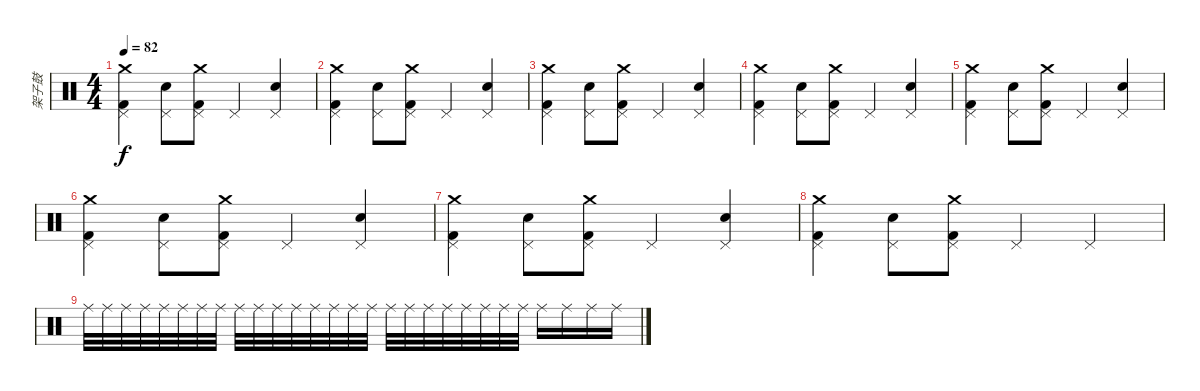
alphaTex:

\track ("架子鼓" "架子鼓") {instrument percussion}
\staff {score}
\articulation defaults
\ts (4 4)
\tempo 82
\clef neutral
\ks c
("Crash medium (hit)" "Pedal Hi-Hat (hit)" "Kick (hit) 2").4{dy f} ("Pedal Hi-Hat (hit)" "Snare (hit) 2").8 ("Crash medium (hit)" "Pedal Hi-Hat (hit)" "Kick (hit) 2").8 "Pedal Hi-Hat (hit)".4 ("Pedal Hi-Hat (hit)" "Snare (hit) 2").4 |
("Crash medium (hit)" "Pedal Hi-Hat (hit)" "Kick (hit) 2").4 ("Pedal Hi-Hat (hit)" "Snare (hit) 2").8 ("Crash medium (hit)" "Pedal Hi-Hat (hit)" "Kick (hit) 2").8 "Pedal Hi-Hat (hit)".4 ("Pedal Hi-Hat (hit)" "Snare (hit) 2").4 |
("Crash medium (hit)" "Pedal Hi-Hat (hit)" "Kick (hit) 2").4 ("Pedal Hi-Hat (hit)" "Snare (hit) 2").8 ("Crash medium (hit)" "Pedal Hi-Hat (hit)" "Kick (hit) 2").8 "Pedal Hi-Hat (hit)".4 ("Pedal Hi-Hat (hit)" "Snare (hit) 2").4 |
("Crash medium (hit)" "Pedal Hi-Hat (hit)" "Kick (hit) 2").4 ("Pedal Hi-Hat (hit)" "Snare (hit) 2").8 ("Crash medium (hit)" "Pedal Hi-Hat (hit)" "Kick (hit) 2").8 "Pedal Hi-Hat (hit)".4 ("Pedal Hi-Hat (hit)" "Snare (hit) 2").4 |
("Crash medium (hit)" "Pedal Hi-Hat (hit)" "Kick (hit) 2").4 ("Pedal Hi-Hat (hit)" "Snare (hit) 2").8 ("Crash medium (hit)" "Pedal Hi-Hat (hit)" "Kick (hit) 2").8 "Pedal Hi-Hat (hit)".4 ("Pedal Hi-Hat (hit)" "Snare (hit) 2").4 |
("Crash medium (hit)" "Pedal Hi-Hat (hit)" "Kick (hit) 2").4 ("Pedal Hi-Hat (hit)" "Snare (hit) 2").8 ("Crash medium (hit)" "Pedal Hi-Hat (hit)" "Kick (hit) 2").8 "Pedal Hi-Hat (hit)".4 ("Pedal Hi-Hat (hit)" "Snare (hit) 2").4 |
("Crash medium (hit)" "Pedal Hi-Hat (hit)" "Kick (hit) 2").4 ("Pedal Hi-Hat (hit)" "Snare (hit) 2").8 ("Crash medium (hit)" "Pedal Hi-Hat (hit)" "Kick (hit) 2").8 "Pedal Hi-Hat (hit)".4 ("Pedal Hi-Hat (hit)" "Snare (hit) 2").4 |
("Crash medium (hit)" "Pedal Hi-Hat (hit)" "Kick (hit) 2").4 ("Pedal Hi-Hat (hit)" "Snare (hit) 2").8 ("Crash medium (hit)" "Pedal Hi-Hat (hit)" "Kick (hit) 2").8 "Pedal Hi-Hat (hit)".4 "Pedal Hi-Hat (hit)".4 |
"Ride (middle)".32{volume 8} "Ride (middle)".32 "Ride (middle)".32 "Ride (middle)".32 "Ride (middle)".32 "Ride (middle)".32 "Ride (middle)".32 "Ride (middle)".32 "Ride (middle)".32 "Ride (middle)".32 "Ride (middle)".32 "Ride (middle)".32 "Ride (middle)".32 "Ride (middle)".32 "Ride (middle)".32 "Ride (middle)".32 "Ride (middle)".32 "Ride (middle)".32 "Ride (middle)".32 "Ride (middle)".32 "Ride (middle)".32 "Ride (middle)".32 "Ride (middle)".32 "Ride (middle)".32 "Ride (middle)".16 "Ride (middle)".16 "Ride (middle)".16 "Ride (middle)".16
